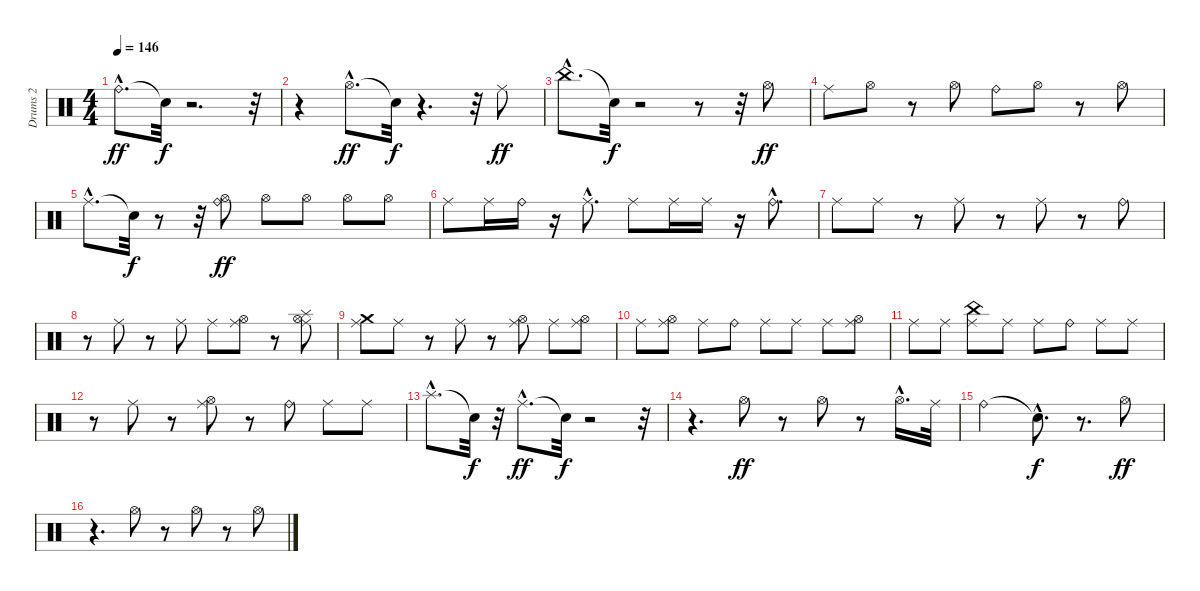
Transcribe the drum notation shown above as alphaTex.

\track ("Drums 2" "Drums 2") {instrument percussion}
\staff {score}
\articulation defaults
\ts (4 4)
\tempo 146
\clef neutral
\ks c "Ride (bell)"{hac}.8{d dy ff} "Snare (hit)"{t}.32{dy f}
r.2{d} r.32 |
r.4 "Hi-Hat (open)"{hac}.8{d dy ff} "Snare (hit)"{t}.32{dy f} r.4{d} r.32 "Ride (middle)".8{dy ff} |
"China (hit)"{hac}.8{d} "Snare (hit)"{t}.32{dy f} r.2 r.8 r.32 "Hi-Hat (open)".8{dy ff} |
"Ride (middle)".8 "Hi-Hat (open)".8 r.8 "Hi-Hat (open)".8 "Ride (bell)".8 "Hi-Hat (open)".8 r.8 "Hi-Hat (open)".8 |
"Ride (middle)"{hac}.8{d} "Snare (hit)"{t}.32{dy f} r.8 r.32 ("Hi-Hat (open)" "Ride (bell)").8{dy ff} "Hi-Hat (open)".8 "Hi-Hat (open)".8 "Hi-Hat (open)".8 "Hi-Hat (open)".8 |
"Ride (middle)".8 "Ride (middle)".16 "Ride (bell)".16 r.16 "Ride (middle)"{hac}.8{d} "Ride (middle)".8 "Ride (middle)".16 "Ride (middle)".16 r.16 "Ride (bell)"{hac}.8{d} |
"Ride (middle)".8 "Ride (middle)".8 r.8 "Ride (middle)".8 r.8 "Ride (middle)".8 r.8 "Ride (bell)".8 |
r.8 "Ride (middle)".8 r.8 "Ride (middle)".8 "Ride (middle)".8 ("Hi-Hat (open)" "Ride (middle)").8 r.8 ("Hi-Hat (open)" "Ride (middle)" "Splash (hit)").8 |
("Ride (middle)" "Crash medium (hit)").8 "Ride (middle)".8 r.8 "Ride (middle)".8 r.8 ("Hi-Hat (open)" "Ride (middle)").8 "Ride (middle)".8 ("Hi-Hat (open)" "Ride (middle)").8 |
"Ride (middle)".8 ("Hi-Hat (open)" "Ride (middle)").8 "Ride (middle)".8 "Ride (bell)".8 "Ride (middle)".8 "Ride (middle)".8 "Ride (middle)".8 ("Hi-Hat (open)" "Ride (middle)").8 |
"Ride (middle)".8 "Ride (middle)".8 ("Ride (middle)" "China (hit)").8 "Ride (middle)".8 "Ride (middle)".8 "Ride (bell)".8 "Ride (middle)".8 "Ride (middle)".8 |
r.8 "Ride (middle)".8 r.8 ("Hi-Hat (open)" "Ride (middle)").8 r.8 "Ride (bell)".8 "Ride (middle)".8 "Ride (middle)".8 |
"Splash (hit)"{hac}.8{d} "Snare (hit)"{t}.32{dy f} r.32 "Ride (middle)"{hac}.8{d dy ff} "Snare (hit)"{t}.32{dy f} r.2 r.32 |
r.4{d} "Hi-Hat (open)".8{dy ff} r.8 "Hi-Hat (open)".8 r.8 "Hi-Hat (open)"{hac}.16{d} "Ride (middle)".32 |
"Ride (bell)".2 "Snare (hit)"{hac t}.8{d dy f} r.8{d} "Hi-Hat (open)".8{dy ff} |
r.4{d} "Hi-Hat (open)".8 r.8 "Hi-Hat (open)".8 r.8 "Hi-Hat (open)".8
